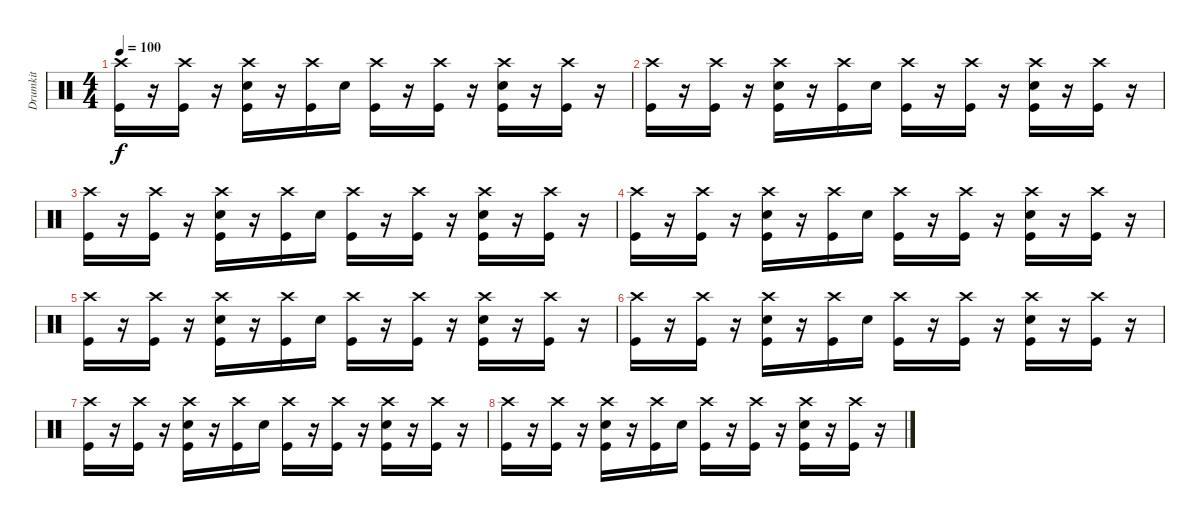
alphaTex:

\track ("Drumkit" "Drumkit") {instrument percussion}
\staff {score}
\articulation defaults
\ts (4 4)
\tempo 100
\clef neutral
\ks c
("Crash high (hit)" "Kick (hit)").16{dy f} r.16 ("Crash high (hit)" "Kick (hit)").16 r.16 ("Crash high (hit)" "Snare (hit) 2" "Kick (hit)").16 r.16 ("Crash high (hit)" "Kick (hit)").16 "Snare (hit) 2".16 ("Crash high (hit)" "Kick (hit)").16 r.16 ("Crash high (hit)" "Kick (hit)").16 r.16 ("Crash high (hit)" "Snare (hit) 2" "Kick (hit)").16 r.16 ("Crash high (hit)" "Kick (hit)").16 r.16 |
("Crash high (hit)" "Kick (hit)").16 r.16 ("Crash high (hit)" "Kick (hit)").16 r.16 ("Crash high (hit)" "Snare (hit) 2" "Kick (hit)").16 r.16 ("Crash high (hit)" "Kick (hit)").16 "Snare (hit) 2".16 ("Crash high (hit)" "Kick (hit)").16 r.16 ("Crash high (hit)" "Kick (hit)").16 r.16 ("Crash high (hit)" "Snare (hit) 2" "Kick (hit)").16 r.16 ("Crash high (hit)" "Kick (hit)").16 r.16 |
("Crash high (hit)" "Kick (hit)").16 r.16 ("Crash high (hit)" "Kick (hit)").16 r.16 ("Crash high (hit)" "Snare (hit) 2" "Kick (hit)").16 r.16 ("Crash high (hit)" "Kick (hit)").16 "Snare (hit) 2".16 ("Crash high (hit)" "Kick (hit)").16 r.16 ("Crash high (hit)" "Kick (hit)").16 r.16 ("Crash high (hit)" "Snare (hit) 2" "Kick (hit)").16 r.16 ("Crash high (hit)" "Kick (hit)").16 r.16 |
("Crash high (hit)" "Kick (hit)").16 r.16 ("Crash high (hit)" "Kick (hit)").16 r.16 ("Crash high (hit)" "Snare (hit) 2" "Kick (hit)").16 r.16 ("Crash high (hit)" "Kick (hit)").16 "Snare (hit) 2".16 ("Crash high (hit)" "Kick (hit)").16 r.16 ("Crash high (hit)" "Kick (hit)").16 r.16 ("Crash high (hit)" "Snare (hit) 2" "Kick (hit)").16 r.16 ("Crash high (hit)" "Kick (hit)").16 r.16 |
("Crash high (hit)" "Kick (hit)").16 r.16 ("Crash high (hit)" "Kick (hit)").16 r.16 ("Crash high (hit)" "Snare (hit) 2" "Kick (hit)").16 r.16 ("Crash high (hit)" "Kick (hit)").16 "Snare (hit) 2".16 ("Crash high (hit)" "Kick (hit)").16 r.16 ("Crash high (hit)" "Kick (hit)").16 r.16 ("Crash high (hit)" "Snare (hit) 2" "Kick (hit)").16 r.16 ("Crash high (hit)" "Kick (hit)").16 r.16 |
("Crash high (hit)" "Kick (hit)").16 r.16 ("Crash high (hit)" "Kick (hit)").16 r.16 ("Crash high (hit)" "Snare (hit) 2" "Kick (hit)").16 r.16 ("Crash high (hit)" "Kick (hit)").16 "Snare (hit) 2".16 ("Crash high (hit)" "Kick (hit)").16 r.16 ("Crash high (hit)" "Kick (hit)").16 r.16 ("Crash high (hit)" "Snare (hit) 2" "Kick (hit)").16 r.16 ("Crash high (hit)" "Kick (hit)").16 r.16 |
("Crash high (hit)" "Kick (hit)").16 r.16 ("Crash high (hit)" "Kick (hit)").16 r.16 ("Crash high (hit)" "Snare (hit) 2" "Kick (hit)").16 r.16 ("Crash high (hit)" "Kick (hit)").16 "Snare (hit) 2".16 ("Crash high (hit)" "Kick (hit)").16 r.16 ("Crash high (hit)" "Kick (hit)").16 r.16 ("Crash high (hit)" "Snare (hit) 2" "Kick (hit)").16 r.16 ("Crash high (hit)" "Kick (hit)").16 r.16 |
("Crash high (hit)" "Kick (hit)").16 r.16 ("Crash high (hit)" "Kick (hit)").16 r.16 ("Crash high (hit)" "Snare (hit) 2" "Kick (hit)").16 r.16 ("Crash high (hit)" "Kick (hit)").16 "Snare (hit) 2".16 ("Crash high (hit)" "Kick (hit)").16 r.16 ("Crash high (hit)" "Kick (hit)").16 r.16 ("Crash high (hit)" "Snare (hit) 2" "Kick (hit)").16 r.16 ("Crash high (hit)" "Kick (hit)").16 r.16
